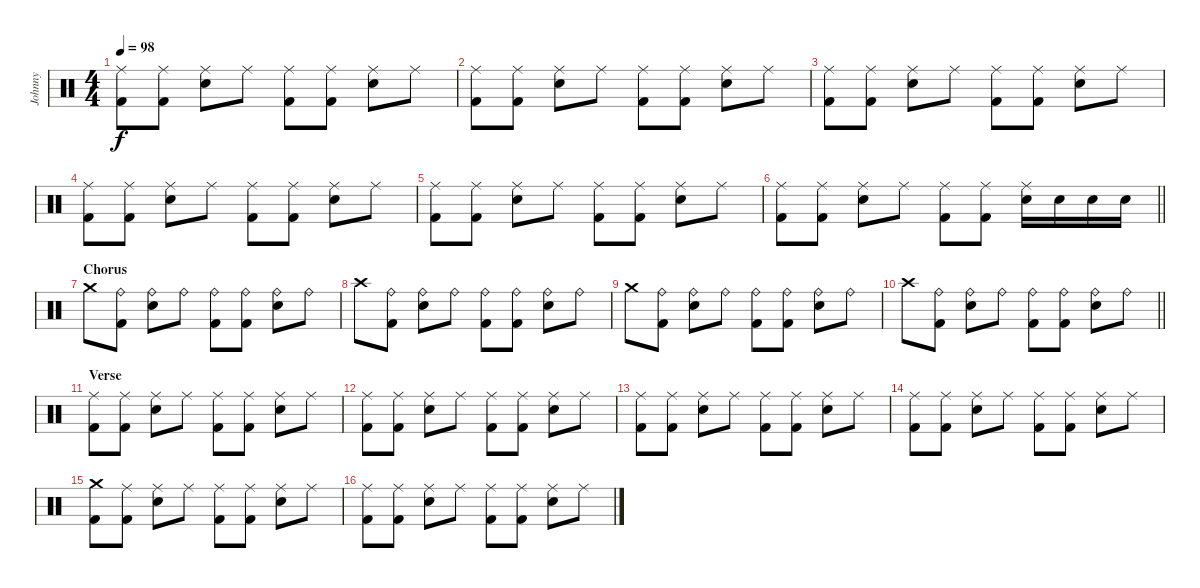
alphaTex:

\track ("Johnny" "Johnny") {instrument percussion}
\staff {score}
\articulation defaults
\ts (4 4)
\tempo 98
\clef neutral
\ks c
("Kick (hit) 2" "Ride (middle)").8{dy f} ("Kick (hit) 2" "Ride (middle)").8 ("Electric Snare (hit)" "Ride (middle)").8 "Ride (middle)".8 ("Kick (hit) 2" "Ride (middle)").8 ("Kick (hit) 2" "Ride (middle)").8 ("Electric Snare (hit)" "Ride (middle)").8 "Ride (middle)".8 |
("Kick (hit) 2" "Ride (middle)").8 ("Kick (hit) 2" "Ride (middle)").8 ("Electric Snare (hit)" "Ride (middle)").8 "Ride (middle)".8 ("Kick (hit) 2" "Ride (middle)").8 ("Kick (hit) 2" "Ride (middle)").8 ("Electric Snare (hit)" "Ride (middle)").8 "Ride (middle)".8 |
("Kick (hit) 2" "Ride (middle)").8 ("Kick (hit) 2" "Ride (middle)").8 ("Electric Snare (hit)" "Ride (middle)").8 "Ride (middle)".8 ("Kick (hit) 2" "Ride (middle)").8 ("Kick (hit) 2" "Ride (middle)").8 ("Electric Snare (hit)" "Ride (middle)").8 "Ride (middle)".8 |
("Kick (hit) 2" "Ride (middle)").8 ("Kick (hit) 2" "Ride (middle)").8 ("Electric Snare (hit)" "Ride (middle)").8 "Ride (middle)".8 ("Kick (hit) 2" "Ride (middle)").8 ("Kick (hit) 2" "Ride (middle)").8 ("Electric Snare (hit)" "Ride (middle)").8 "Ride (middle)".8 |
("Kick (hit) 2" "Ride (middle)").8 ("Kick (hit) 2" "Ride (middle)").8 ("Electric Snare (hit)" "Ride (middle)").8 "Ride (middle)".8 ("Kick (hit) 2" "Ride (middle)").8 ("Kick (hit) 2" "Ride (middle)").8 ("Electric Snare (hit)" "Ride (middle)").8 "Ride (middle)".8 |
\barLineRight lightlight
("Kick (hit) 2" "Ride (middle)").8 ("Kick (hit) 2" "Ride (middle)").8 ("Electric Snare (hit)" "Ride (middle)").8 "Ride (middle)".8 ("Kick (hit) 2" "Ride (middle)").8 ("Kick (hit) 2" "Ride (middle)").8 ("Electric Snare (hit)" "Ride (middle)").16 "Electric Snare (hit)".16 "Electric Snare (hit)".16 "Electric Snare (hit)".16 |
\section ("" "Chorus")
"Crash medium (hit)".8 ("Kick (hit) 2" "Ride (bell)").8 ("Electric Snare (hit)" "Ride (bell)").8 "Ride (bell)".8 ("Kick (hit) 2" "Ride (bell)").8 ("Kick (hit) 2" "Ride (bell)").8 ("Electric Snare (hit)" "Ride (bell)").8 "Ride (bell)".8 |
"Crash high (hit)".8 ("Kick (hit) 2" "Ride (bell)").8 ("Electric Snare (hit)" "Ride (bell)").8 "Ride (bell)".8 ("Kick (hit) 2" "Ride (bell)").8 ("Kick (hit) 2" "Ride (bell)").8 ("Electric Snare (hit)" "Ride (bell)").8 "Ride (bell)".8 |
"Crash medium (hit)".8 ("Kick (hit) 2" "Ride (bell)").8 ("Electric Snare (hit)" "Ride (bell)").8 "Ride (bell)".8 ("Kick (hit) 2" "Ride (bell)").8 ("Kick (hit) 2" "Ride (bell)").8 ("Electric Snare (hit)" "Ride (bell)").8 "Ride (bell)".8 |
\barLineRight lightlight "Crash high (hit)".8
("Kick (hit) 2" "Ride (bell)").8 ("Electric Snare (hit)" "Ride (bell)").8 "Ride (bell)".8 ("Kick (hit) 2" "Ride (bell)").8 ("Kick (hit) 2" "Ride (bell)").8 ("Electric Snare (hit)" "Ride (bell)").8 "Ride (bell)".8 |
\section ("" "Verse")
("Kick (hit) 2" "Ride (middle)").8 ("Kick (hit) 2" "Ride (middle)").8 ("Electric Snare (hit)" "Ride (middle)").8 "Ride (middle)".8 ("Kick (hit) 2" "Ride (middle)").8 ("Kick (hit) 2" "Ride (middle)").8 ("Electric Snare (hit)" "Ride (middle)").8 "Ride (middle)".8 |
("Kick (hit) 2" "Ride (middle)").8 ("Kick (hit) 2" "Ride (middle)").8 ("Electric Snare (hit)" "Ride (middle)").8 "Ride (middle)".8 ("Kick (hit) 2" "Ride (middle)").8 ("Kick (hit) 2" "Ride (middle)").8 ("Electric Snare (hit)" "Ride (middle)").8 "Ride (middle)".8 |
("Kick (hit) 2" "Ride (middle)").8 ("Kick (hit) 2" "Ride (middle)").8 ("Electric Snare (hit)" "Ride (middle)").8 "Ride (middle)".8 ("Kick (hit) 2" "Ride (middle)").8 ("Kick (hit) 2" "Ride (middle)").8 ("Electric Snare (hit)" "Ride (middle)").8 "Ride (middle)".8 |
("Kick (hit) 2" "Ride (middle)").8 ("Kick (hit) 2" "Ride (middle)").8 ("Electric Snare (hit)" "Ride (middle)").8 "Ride (middle)".8 ("Kick (hit) 2" "Ride (middle)").8 ("Kick (hit) 2" "Ride (middle)").8 ("Electric Snare (hit)" "Ride (middle)").8 "Ride (middle)".8 |
("Kick (hit) 2" "Crash medium (hit)").8 ("Kick (hit) 2" "Ride (middle)").8 ("Electric Snare (hit)" "Ride (middle)").8 "Ride (middle)".8 ("Kick (hit) 2" "Ride (middle)").8 ("Kick (hit) 2" "Ride (middle)").8 ("Electric Snare (hit)" "Ride (middle)").8 "Ride (middle)".8 |
("Kick (hit) 2" "Ride (middle)").8 ("Kick (hit) 2" "Ride (middle)").8 ("Electric Snare (hit)" "Ride (middle)").8 "Ride (middle)".8 ("Kick (hit) 2" "Ride (middle)").8 ("Kick (hit) 2" "Ride (middle)").8 ("Electric Snare (hit)" "Ride (middle)").8 "Ride (middle)".8
